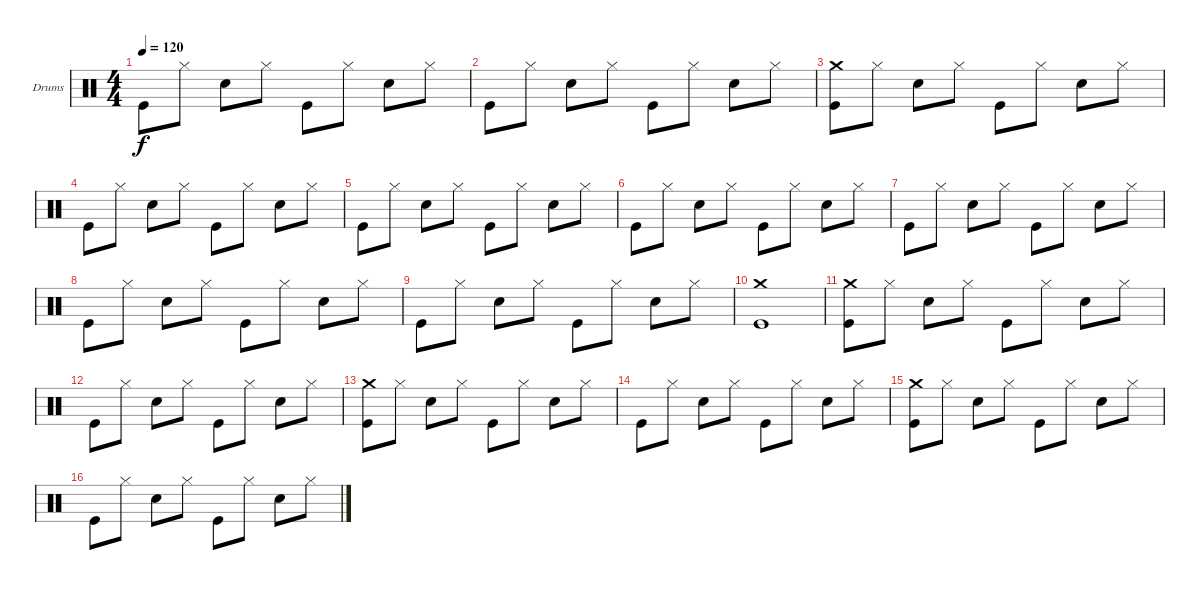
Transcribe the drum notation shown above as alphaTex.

\defaultSystemsLayout 4
\bracketExtendMode groupsimilarinstruments
\firstSystemTrackNameOrientation horizontal
\otherSystemsTrackNameOrientation horizontal
\track ("Е. Кулаков" "Drums") {instrument percussion}
\staff {score}
\articulation defaults
\ts (4 4)
\tempo 120
\clef neutral
\ks c "Kick (hit)".8{dy f} "Hi-Hat (closed)".8 "Snare (hit) 2".8 "Hi-Hat (closed)".8 "Kick (hit)".8 "Hi-Hat (closed)".8 "Snare (hit) 2".8 "Hi-Hat (closed)".8
|
"Kick (hit)".8 "Hi-Hat (closed)".8 "Snare (hit) 2".8 "Hi-Hat (closed)".8 "Kick (hit)".8 "Hi-Hat (closed)".8 "Snare (hit) 2".8 "Hi-Hat (closed)".8 |
("Kick (hit)" "Crash medium (hit)").8 "Hi-Hat (closed)".8 "Snare (hit) 2".8 "Hi-Hat (closed)".8 "Kick (hit)".8 "Hi-Hat (closed)".8 "Snare (hit) 2".8 "Hi-Hat (closed)".8 |
"Kick (hit)".8 "Hi-Hat (closed)".8 "Snare (hit) 2".8 "Hi-Hat (closed)".8 "Kick (hit)".8 "Hi-Hat (closed)".8 "Snare (hit) 2".8 "Hi-Hat (closed)".8 |
"Kick (hit)".8 "Hi-Hat (closed)".8 "Snare (hit) 2".8 "Hi-Hat (closed)".8 "Kick (hit)".8 "Hi-Hat (closed)".8 "Snare (hit) 2".8 "Hi-Hat (closed)".8 |
"Kick (hit)".8 "Hi-Hat (closed)".8 "Snare (hit) 2".8 "Hi-Hat (closed)".8 "Kick (hit)".8 "Hi-Hat (closed)".8 "Snare (hit) 2".8 "Hi-Hat (closed)".8 |
"Kick (hit)".8 "Hi-Hat (closed)".8 "Snare (hit) 2".8 "Hi-Hat (closed)".8 "Kick (hit)".8 "Hi-Hat (closed)".8 "Snare (hit) 2".8 "Hi-Hat (closed)".8 |
"Kick (hit)".8 "Hi-Hat (closed)".8 "Snare (hit) 2".8 "Hi-Hat (closed)".8 "Kick (hit)".8 "Hi-Hat (closed)".8 "Snare (hit) 2".8 "Hi-Hat (closed)".8 |
"Kick (hit)".8 "Hi-Hat (closed)".8 "Snare (hit) 2".8 "Hi-Hat (closed)".8 "Kick (hit)".8 "Hi-Hat (closed)".8 "Snare (hit) 2".8 "Hi-Hat (closed)".8 |
("Kick (hit)" "Crash medium (hit)").1 |
("Kick (hit)" "Crash medium (hit)").8 "Hi-Hat (closed)".8 "Snare (hit) 2".8 "Hi-Hat (closed)".8 "Kick (hit)".8 "Hi-Hat (closed)".8 "Snare (hit) 2".8 "Hi-Hat (closed)".8 |
"Kick (hit)".8 "Hi-Hat (closed)".8 "Snare (hit) 2".8 "Hi-Hat (closed)".8 "Kick (hit)".8 "Hi-Hat (closed)".8 "Snare (hit) 2".8 "Hi-Hat (closed)".8 |
("Kick (hit)" "Crash medium (hit)").8 "Hi-Hat (closed)".8 "Snare (hit) 2".8 "Hi-Hat (closed)".8 "Kick (hit)".8 "Hi-Hat (closed)".8 "Snare (hit) 2".8 "Hi-Hat (closed)".8 |
"Kick (hit)".8 "Hi-Hat (closed)".8 "Snare (hit) 2".8 "Hi-Hat (closed)".8 "Kick (hit)".8 "Hi-Hat (closed)".8 "Snare (hit) 2".8 "Hi-Hat (closed)".8 |
("Kick (hit)" "Crash medium (hit)").8 "Hi-Hat (closed)".8 "Snare (hit) 2".8 "Hi-Hat (closed)".8 "Kick (hit)".8 "Hi-Hat (closed)".8 "Snare (hit) 2".8 "Hi-Hat (closed)".8 |
"Kick (hit)".8 "Hi-Hat (closed)".8 "Snare (hit) 2".8 "Hi-Hat (closed)".8 "Kick (hit)".8 "Hi-Hat (closed)".8 "Snare (hit) 2".8 "Hi-Hat (closed)".8
